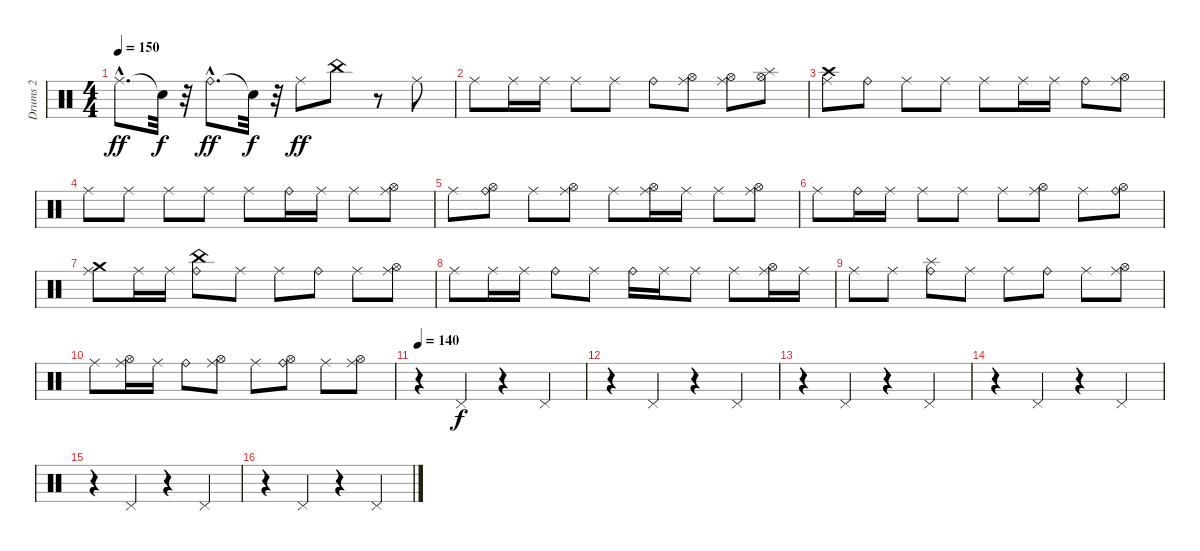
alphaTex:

\track ("Drums 2" "Drums 2") {instrument percussion}
\staff {score}
\articulation defaults
\ts (4 4)
\tempo 150
\clef neutral
\ks c "Ride (middle)"{hac}.8{d dy ff} "Snare (hit)"{t}.32{dy f}
r.32 "Ride (bell)"{hac}.8{d dy ff} "Snare (hit)"{t}.32{dy f} r.32 "Ride (middle)".8{dy ff} "China (hit)".8 r.8 "Ride (middle)".8 |
"Ride (middle)".8 "Ride (middle)".16 "Ride (middle)".16 "Ride (middle)".8 "Ride (middle)".8 "Ride (bell)".8 ("Hi-Hat (open)" "Ride (middle)").8 ("Hi-Hat (open)" "Ride (middle)").8 ("Hi-Hat (open)" "Splash (hit)").8 |
("Crash high (hit)" "Ride (middle)").8 "Ride (bell)".8 "Ride (middle)".8 "Ride (middle)".8 "Ride (middle)".8 "Ride (middle)".16 "Ride (middle)".16 "Ride (bell)".8 ("Hi-Hat (open)" "Ride (middle)").8 |
"Ride (middle)".8 "Ride (middle)".8 "Ride (middle)".8 "Ride (middle)".8 "Ride (middle)".8 "Ride (bell)".16 "Ride (middle)".16 "Ride (middle)".8 ("Hi-Hat (open)" "Ride (middle)").8 |
"Ride (middle)".8 ("Hi-Hat (open)" "Ride (bell)").8 "Ride (middle)".8 ("Hi-Hat (open)" "Ride (middle)").8 "Ride (middle)".8 ("Hi-Hat (open)" "Ride (middle)").16 "Ride (middle)".16 "Ride (middle)".8 ("Hi-Hat (open)" "Ride (middle)").8 |
"Ride (middle)".8 "Ride (bell)".16 "Ride (middle)".16 "Ride (middle)".8 "Ride (middle)".8 "Ride (middle)".8 ("Hi-Hat (open)" "Ride (middle)").8 "Ride (middle)".8 ("Hi-Hat (open)" "Ride (bell)").8 |
("Ride (middle)" "Crash medium (hit)").8 "Ride (middle)".16 "Ride (middle)".16 ("China (hit)" "Ride (bell)").8 "Ride (middle)".8 "Ride (middle)".8 "Ride (bell)".8 "Ride (middle)".8 ("Hi-Hat (open)" "Ride (middle)").8 |
"Ride (middle)".8 "Ride (middle)".16 "Ride (middle)".16 "Ride (bell)".8 "Ride (middle)".8 "Ride (bell)".16 "Ride (middle)".16 "Ride (middle)".8 "Ride (middle)".8 ("Hi-Hat (open)" "Ride (middle)").16 "Ride (middle)".16 |
"Ride (middle)".8 "Ride (middle)".8 ("Ride (bell)" "Splash (hit)").8 "Ride (middle)".8 "Ride (middle)".8 "Ride (bell)".8 "Ride (middle)".8 ("Hi-Hat (open)" "Ride (middle)").8 |
"Ride (middle)".8 ("Hi-Hat (open)" "Ride (middle)").16 "Ride (middle)".16 "Ride (bell)".8 ("Hi-Hat (open)" "Ride (middle)").8 "Ride (middle)".8 ("Hi-Hat (open)" "Ride (bell)").8 "Ride (middle)".8 ("Hi-Hat (open)" "Ride (middle)").8 |
\tempo 140
r.4 "Pedal Hi-Hat (hit)".4{dy f} r.4 "Pedal Hi-Hat (hit)".4 |
r.4 "Pedal Hi-Hat (hit)".4 r.4 "Pedal Hi-Hat (hit)".4 |
r.4 "Pedal Hi-Hat (hit)".4 r.4 "Pedal Hi-Hat (hit)".4 |
r.4 "Pedal Hi-Hat (hit)".4 r.4 "Pedal Hi-Hat (hit)".4 |
r.4 "Pedal Hi-Hat (hit)".4 r.4 "Pedal Hi-Hat (hit)".4 |
r.4 "Pedal Hi-Hat (hit)".4 r.4 "Pedal Hi-Hat (hit)".4
